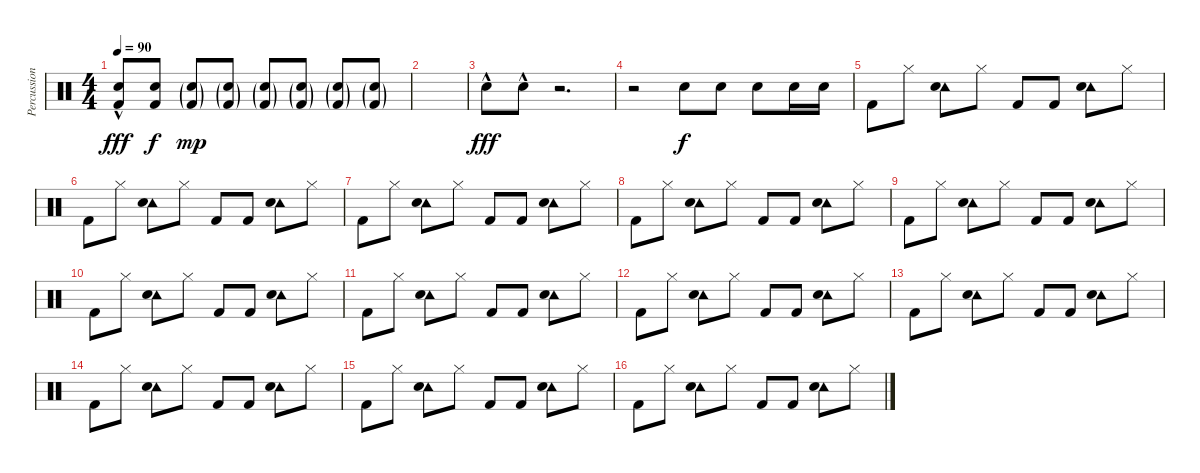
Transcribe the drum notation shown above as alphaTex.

\track ("Percussion" "Percussion") {instrument percussion}
\staff {score}
\articulation defaults
\ts (4 4)
\tempo 90
\clef neutral
\ks c
("Snare (hit) 2"{hac} "Kick (hit) 2"{hac}).8{dy fff} ("Snare (hit) 2" "Kick (hit) 2").8{dy f} ("Snare (hit) 2"{g} "Kick (hit) 2"{g}).8{dy mp} ("Snare (hit) 2"{g} "Kick (hit) 2"{g}).8 ("Snare (hit) 2"{g} "Kick (hit) 2"{g}).8 ("Snare (hit) 2"{g} "Kick (hit) 2"{g}).8 ("Snare (hit) 2"{g} "Kick (hit) 2"{g}).8 ("Snare (hit) 2"{g} "Kick (hit) 2"{g}).8 |
|
"Snare (hit) 2"{hac}.8{dy fff} "Snare (hit) 2"{hac}.8 r.2{d} |
r.2 "Snare (hit) 2".8{dy f} "Snare (hit) 2".8 "Snare (hit) 2".8 "Snare (hit) 2".16 "Snare (hit) 2".16 |
"Kick (hit) 2".8 "Hi-Hat (closed)".8 ("Tambourine (hit)" "Snare (hit) 2").8 "Hi-Hat (closed)".8 "Kick (hit) 2".8 "Kick (hit) 2".8 ("Tambourine (hit)" "Snare (hit) 2").8 "Hi-Hat (closed)".8 |
"Kick (hit) 2".8 "Hi-Hat (closed)".8 ("Tambourine (hit)" "Snare (hit) 2").8 "Hi-Hat (closed)".8 "Kick (hit) 2".8 "Kick (hit) 2".8 ("Tambourine (hit)" "Snare (hit) 2").8 "Hi-Hat (closed)".8 |
"Kick (hit) 2".8 "Hi-Hat (closed)".8 ("Tambourine (hit)" "Snare (hit) 2").8 "Hi-Hat (closed)".8 "Kick (hit) 2".8 "Kick (hit) 2".8 ("Tambourine (hit)" "Snare (hit) 2").8 "Hi-Hat (closed)".8 |
"Kick (hit) 2".8 "Hi-Hat (closed)".8 ("Tambourine (hit)" "Snare (hit) 2").8 "Hi-Hat (closed)".8 "Kick (hit) 2".8 "Kick (hit) 2".8 ("Tambourine (hit)" "Snare (hit) 2").8 "Hi-Hat (closed)".8 |
"Kick (hit) 2".8 "Hi-Hat (closed)".8 ("Tambourine (hit)" "Snare (hit) 2").8 "Hi-Hat (closed)".8 "Kick (hit) 2".8 "Kick (hit) 2".8 ("Tambourine (hit)" "Snare (hit) 2").8 "Hi-Hat (closed)".8 |
"Kick (hit) 2".8 "Hi-Hat (closed)".8 ("Tambourine (hit)" "Snare (hit) 2").8 "Hi-Hat (closed)".8 "Kick (hit) 2".8 "Kick (hit) 2".8 ("Tambourine (hit)" "Snare (hit) 2").8 "Hi-Hat (closed)".8 |
"Kick (hit) 2".8 "Hi-Hat (closed)".8 ("Tambourine (hit)" "Snare (hit) 2").8 "Hi-Hat (closed)".8 "Kick (hit) 2".8 "Kick (hit) 2".8 ("Tambourine (hit)" "Snare (hit) 2").8 "Hi-Hat (closed)".8 |
"Kick (hit) 2".8 "Hi-Hat (closed)".8 ("Tambourine (hit)" "Snare (hit) 2").8 "Hi-Hat (closed)".8 "Kick (hit) 2".8 "Kick (hit) 2".8 ("Tambourine (hit)" "Snare (hit) 2").8 "Hi-Hat (closed)".8 |
"Kick (hit) 2".8 "Hi-Hat (closed)".8 ("Tambourine (hit)" "Snare (hit) 2").8 "Hi-Hat (closed)".8 "Kick (hit) 2".8 "Kick (hit) 2".8 ("Tambourine (hit)" "Snare (hit) 2").8 "Hi-Hat (closed)".8 |
"Kick (hit) 2".8 "Hi-Hat (closed)".8 ("Tambourine (hit)" "Snare (hit) 2").8 "Hi-Hat (closed)".8 "Kick (hit) 2".8 "Kick (hit) 2".8 ("Tambourine (hit)" "Snare (hit) 2").8 "Hi-Hat (closed)".8 |
"Kick (hit) 2".8 "Hi-Hat (closed)".8 ("Tambourine (hit)" "Snare (hit) 2").8 "Hi-Hat (closed)".8 "Kick (hit) 2".8 "Kick (hit) 2".8 ("Tambourine (hit)" "Snare (hit) 2").8 "Hi-Hat (closed)".8 |
"Kick (hit) 2".8 "Hi-Hat (closed)".8 ("Tambourine (hit)" "Snare (hit) 2").8 "Hi-Hat (closed)".8 "Kick (hit) 2".8 "Kick (hit) 2".8 ("Tambourine (hit)" "Snare (hit) 2").8 "Hi-Hat (closed)".8
